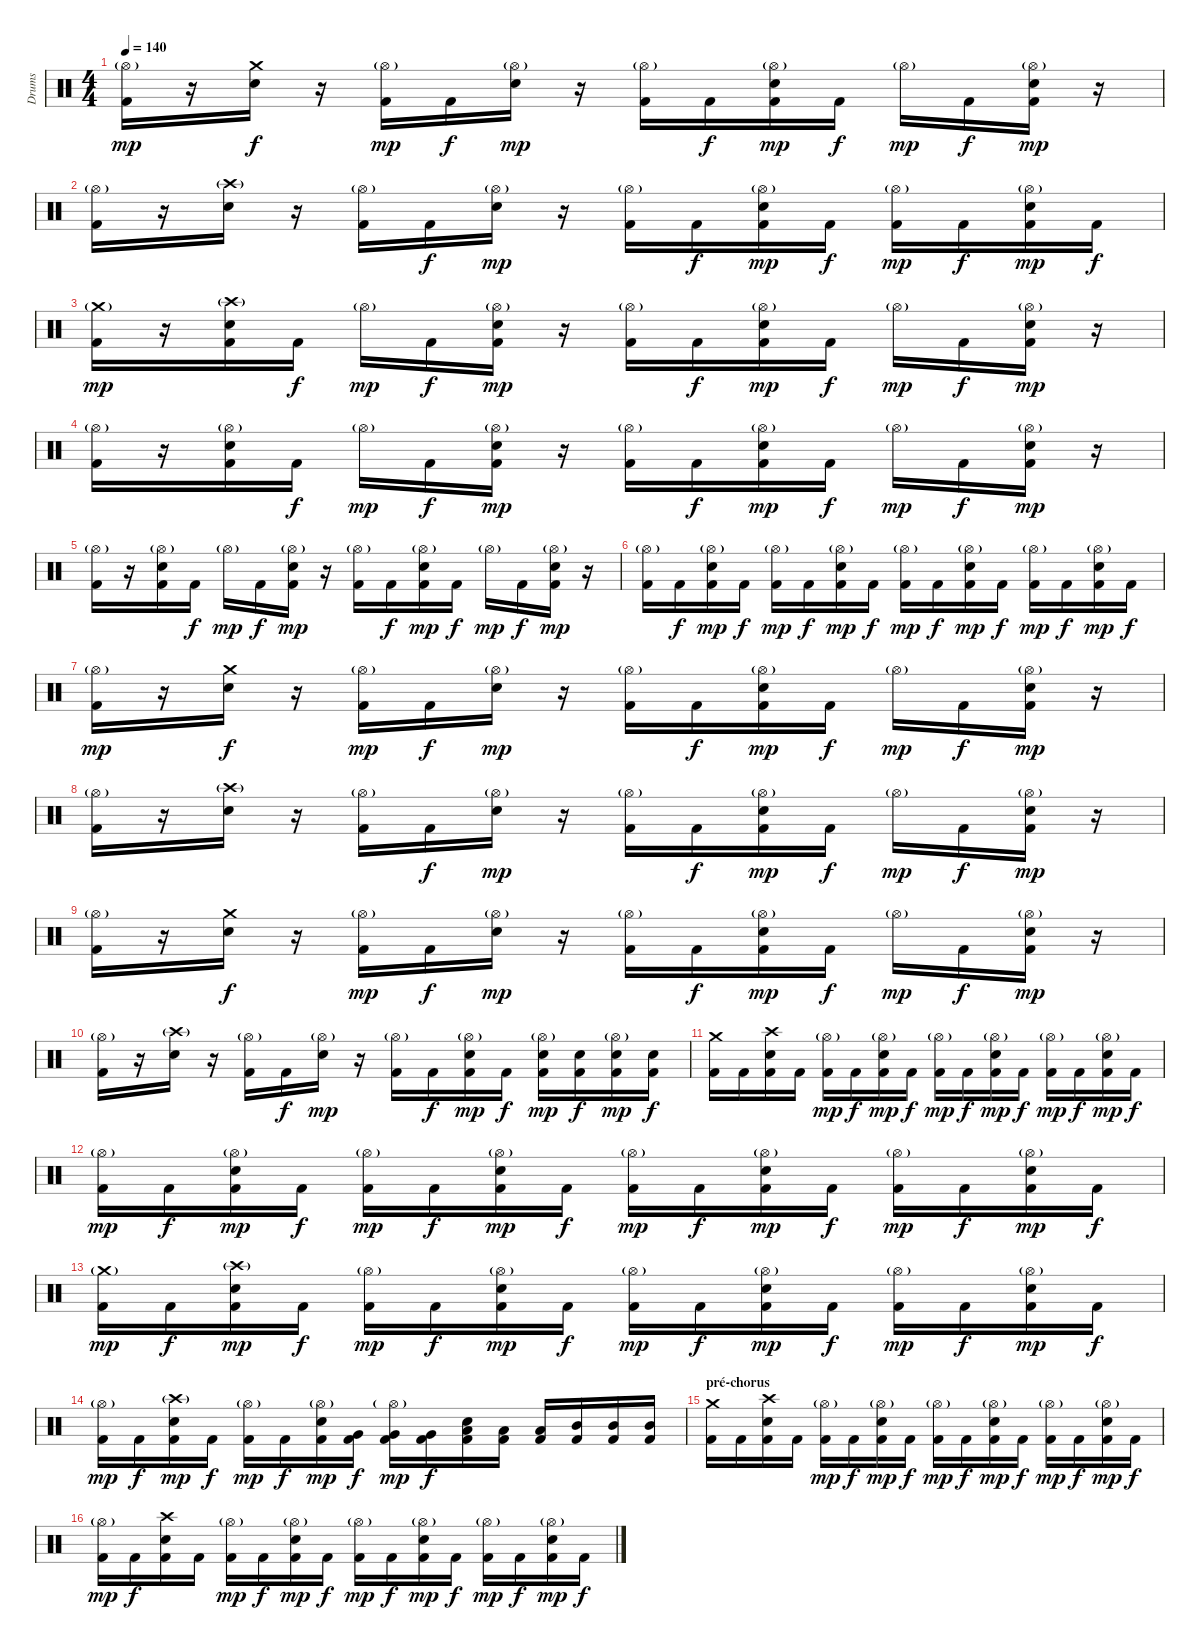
\track ("Drums" "Drums") {instrument percussion}
\staff {score}
\articulation defaults
\ts (4 4)
\tempo 140
\clef neutral
\ks c
("Hi-Hat (open)"{g} "Kick (hit) 2").16{dy mp} r.16 ("Crash medium (hit)" "Electric Snare (hit)").16{dy f} r.16 ("Hi-Hat (open)"{g} "Kick (hit) 2").16{dy mp} "Kick (hit) 2".16{dy f} ("Hi-Hat (open)"{g} "Electric Snare (hit)").16{dy mp} r.16 ("Hi-Hat (open)"{g} "Kick (hit) 2").16 "Kick (hit) 2".16{dy f} ("Hi-Hat (open)"{g} "Electric Snare (hit)" "Kick (hit) 2").16{dy mp} "Kick (hit) 2".16{dy f} "Hi-Hat (open)"{g}.16{dy mp} "Kick (hit) 2".16{dy f} ("Hi-Hat (open)"{g} "Electric Snare (hit)" "Kick (hit) 2").16{dy mp} r.16 |
("Hi-Hat (open)"{g} "Kick (hit) 2").16 r.16 ("Crash high (hit)"{g} "Electric Snare (hit)").16 r.16 ("Hi-Hat (open)"{g} "Kick (hit) 2").16 "Kick (hit) 2".16{dy f} ("Hi-Hat (open)"{g} "Electric Snare (hit)").16{dy mp} r.16 ("Hi-Hat (open)"{g} "Kick (hit) 2").16 "Kick (hit) 2".16{dy f} ("Hi-Hat (open)"{g} "Electric Snare (hit)" "Kick (hit) 2").16{dy mp} "Kick (hit) 2".16{dy f} ("Hi-Hat (open)"{g} "Kick (hit) 2").16{dy mp} "Kick (hit) 2".16{dy f} ("Hi-Hat (open)"{g} "Electric Snare (hit)" "Kick (hit) 2").16{dy mp} "Kick (hit) 2".16{dy f} |
("Crash medium (hit)"{g} "Kick (hit) 2").16{dy mp} r.16 ("Crash high (hit)"{g} "Electric Snare (hit)" "Kick (hit) 2").16 "Kick (hit) 2".16{dy f} "Hi-Hat (open)"{g}.16{dy mp} "Kick (hit) 2".16{dy f} ("Hi-Hat (open)"{g} "Electric Snare (hit)" "Kick (hit) 2").16{dy mp} r.16 ("Hi-Hat (open)"{g} "Kick (hit) 2").16 "Kick (hit) 2".16{dy f} ("Hi-Hat (open)"{g} "Electric Snare (hit)" "Kick (hit) 2").16{dy mp} "Kick (hit) 2".16{dy f} "Hi-Hat (open)"{g}.16{dy mp} "Kick (hit) 2".16{dy f} ("Hi-Hat (open)"{g} "Electric Snare (hit)" "Kick (hit) 2").16{dy mp} r.16 |
("Hi-Hat (open)"{g} "Kick (hit) 2").16 r.16 ("Hi-Hat (open)"{g} "Electric Snare (hit)" "Kick (hit) 2").16 "Kick (hit) 2".16{dy f} "Hi-Hat (open)"{g}.16{dy mp} "Kick (hit) 2".16{dy f} ("Hi-Hat (open)"{g} "Electric Snare (hit)" "Kick (hit) 2").16{dy mp} r.16 ("Hi-Hat (open)"{g} "Kick (hit) 2").16 "Kick (hit) 2".16{dy f} ("Hi-Hat (open)"{g} "Electric Snare (hit)" "Kick (hit) 2").16{dy mp} "Kick (hit) 2".16{dy f} "Hi-Hat (open)"{g}.16{dy mp} "Kick (hit) 2".16{dy f} ("Hi-Hat (open)"{g} "Electric Snare (hit)" "Kick (hit) 2").16{dy mp} r.16 |
("Hi-Hat (open)"{g} "Kick (hit) 2").16 r.16 ("Hi-Hat (open)"{g} "Electric Snare (hit)" "Kick (hit) 2").16 "Kick (hit) 2".16{dy f} "Hi-Hat (open)"{g}.16{dy mp} "Kick (hit) 2".16{dy f} ("Hi-Hat (open)"{g} "Electric Snare (hit)" "Kick (hit) 2").16{dy mp} r.16 ("Hi-Hat (open)"{g} "Kick (hit) 2").16 "Kick (hit) 2".16{dy f} ("Hi-Hat (open)"{g} "Electric Snare (hit)" "Kick (hit) 2").16{dy mp} "Kick (hit) 2".16{dy f} "Hi-Hat (open)"{g}.16{dy mp} "Kick (hit) 2".16{dy f} ("Hi-Hat (open)"{g} "Electric Snare (hit)" "Kick (hit) 2").16{dy mp} r.16 |
("Hi-Hat (open)"{g} "Kick (hit) 2").16 "Kick (hit) 2".16{dy f} ("Hi-Hat (open)"{g} "Electric Snare (hit)" "Kick (hit) 2").16{dy mp} "Kick (hit) 2".16{dy f} ("Hi-Hat (open)"{g} "Kick (hit) 2").16{dy mp} "Kick (hit) 2".16{dy f} ("Hi-Hat (open)"{g} "Electric Snare (hit)" "Kick (hit) 2").16{dy mp} "Kick (hit) 2".16{dy f} ("Hi-Hat (open)"{g} "Kick (hit) 2").16{dy mp} "Kick (hit) 2".16{dy f} ("Hi-Hat (open)"{g} "Electric Snare (hit)" "Kick (hit) 2").16{dy mp} "Kick (hit) 2".16{dy f} ("Hi-Hat (open)"{g} "Kick (hit) 2").16{dy mp} "Kick (hit) 2".16{dy f} ("Hi-Hat (open)"{g} "Electric Snare (hit)" "Kick (hit) 2").16{dy mp} "Kick (hit) 2".16{dy f} |
("Hi-Hat (open)"{g} "Kick (hit) 2").16{dy mp} r.16 ("Crash medium (hit)" "Electric Snare (hit)").16{dy f} r.16 ("Hi-Hat (open)"{g} "Kick (hit) 2").16{dy mp} "Kick (hit) 2".16{dy f} ("Hi-Hat (open)"{g} "Electric Snare (hit)").16{dy mp} r.16 ("Hi-Hat (open)"{g} "Kick (hit) 2").16 "Kick (hit) 2".16{dy f} ("Hi-Hat (open)"{g} "Electric Snare (hit)" "Kick (hit) 2").16{dy mp} "Kick (hit) 2".16{dy f} "Hi-Hat (open)"{g}.16{dy mp} "Kick (hit) 2".16{dy f} ("Hi-Hat (open)"{g} "Electric Snare (hit)" "Kick (hit) 2").16{dy mp} r.16 |
("Hi-Hat (open)"{g} "Kick (hit) 2").16 r.16 ("Crash high (hit)"{g} "Electric Snare (hit)").16 r.16 ("Hi-Hat (open)"{g} "Kick (hit) 2").16 "Kick (hit) 2".16{dy f} ("Hi-Hat (open)"{g} "Electric Snare (hit)").16{dy mp} r.16 ("Hi-Hat (open)"{g} "Kick (hit) 2").16 "Kick (hit) 2".16{dy f} ("Hi-Hat (open)"{g} "Electric Snare (hit)" "Kick (hit) 2").16{dy mp} "Kick (hit) 2".16{dy f} "Hi-Hat (open)"{g}.16{dy mp} "Kick (hit) 2".16{dy f} ("Hi-Hat (open)"{g} "Electric Snare (hit)" "Kick (hit) 2").16{dy mp} r.16 |
("Hi-Hat (open)"{g} "Kick (hit) 2").16 r.16 ("Crash medium (hit)" "Electric Snare (hit)").16{dy f} r.16 ("Hi-Hat (open)"{g} "Kick (hit) 2").16{dy mp} "Kick (hit) 2".16{dy f} ("Hi-Hat (open)"{g} "Electric Snare (hit)").16{dy mp} r.16 ("Hi-Hat (open)"{g} "Kick (hit) 2").16 "Kick (hit) 2".16{dy f} ("Hi-Hat (open)"{g} "Electric Snare (hit)" "Kick (hit) 2").16{dy mp} "Kick (hit) 2".16{dy f} "Hi-Hat (open)"{g}.16{dy mp} "Kick (hit) 2".16{dy f} ("Hi-Hat (open)"{g} "Electric Snare (hit)" "Kick (hit) 2").16{dy mp} r.16 |
("Hi-Hat (open)"{g} "Kick (hit) 2").16 r.16 ("Crash high (hit)"{g} "Electric Snare (hit)").16 r.16 ("Hi-Hat (open)"{g} "Kick (hit) 2").16 "Kick (hit) 2".16{dy f} ("Hi-Hat (open)"{g} "Electric Snare (hit)").16{dy mp} r.16 ("Hi-Hat (open)"{g} "Kick (hit) 2").16 "Kick (hit) 2".16{dy f} ("Hi-Hat (open)"{g} "Electric Snare (hit)" "Kick (hit) 2").16{dy mp} "Kick (hit) 2".16{dy f} ("Hi-Hat (open)"{g} "Electric Snare (hit)" "Kick (hit) 2").16{dy mp} ("Electric Snare (hit)" "Kick (hit) 2").16{dy f} ("Hi-Hat (open)"{g} "Electric Snare (hit)" "Kick (hit) 2").16{dy mp} ("Electric Snare (hit)" "Kick (hit) 2").16{dy f} |
("Crash medium (hit)" "Kick (hit) 2").16 "Kick (hit) 2".16 ("Crash high (hit)" "Electric Snare (hit)" "Kick (hit) 2").16 "Kick (hit) 2".16 ("Hi-Hat (open)"{g} "Kick (hit) 2").16{dy mp} "Kick (hit) 2".16{dy f} ("Hi-Hat (open)"{g} "Electric Snare (hit)" "Kick (hit) 2").16{dy mp} "Kick (hit) 2".16{dy f} ("Hi-Hat (open)"{g} "Kick (hit) 2").16{dy mp} "Kick (hit) 2".16{dy f} ("Hi-Hat (open)"{g} "Electric Snare (hit)" "Kick (hit) 2").16{dy mp} "Kick (hit) 2".16{dy f} ("Hi-Hat (open)"{g} "Kick (hit) 2").16{dy mp} "Kick (hit) 2".16{dy f} ("Hi-Hat (open)"{g} "Electric Snare (hit)" "Kick (hit) 2").16{dy mp} "Kick (hit) 2".16{dy f} |
("Hi-Hat (open)"{g} "Kick (hit) 2").16{dy mp} "Kick (hit) 2".16{dy f} ("Hi-Hat (open)"{g} "Electric Snare (hit)" "Kick (hit) 2").16{dy mp} "Kick (hit) 2".16{dy f} ("Hi-Hat (open)"{g} "Kick (hit) 2").16{dy mp} "Kick (hit) 2".16{dy f} ("Hi-Hat (open)"{g} "Electric Snare (hit)" "Kick (hit) 2").16{dy mp} "Kick (hit) 2".16{dy f} ("Hi-Hat (open)"{g} "Kick (hit) 2").16{dy mp} "Kick (hit) 2".16{dy f} ("Hi-Hat (open)"{g} "Electric Snare (hit)" "Kick (hit) 2").16{dy mp} "Kick (hit) 2".16{dy f} ("Hi-Hat (open)"{g} "Kick (hit) 2").16{dy mp} "Kick (hit) 2".16{dy f} ("Hi-Hat (open)"{g} "Electric Snare (hit)" "Kick (hit) 2").16{dy mp} "Kick (hit) 2".16{dy f} |
("Crash medium (hit)"{g} "Kick (hit) 2").16{dy mp} "Kick (hit) 2".16{dy f} ("Crash high (hit)"{g} "Electric Snare (hit)" "Kick (hit) 2").16{dy mp} "Kick (hit) 2".16{dy f} ("Hi-Hat (open)"{g} "Kick (hit) 2").16{dy mp} "Kick (hit) 2".16{dy f} ("Hi-Hat (open)"{g} "Electric Snare (hit)" "Kick (hit) 2").16{dy mp} "Kick (hit) 2".16{dy f} ("Hi-Hat (open)"{g} "Kick (hit) 2").16{dy mp} "Kick (hit) 2".16{dy f} ("Hi-Hat (open)"{g} "Electric Snare (hit)" "Kick (hit) 2").16{dy mp} "Kick (hit) 2".16{dy f} ("Hi-Hat (open)"{g} "Kick (hit) 2").16{dy mp} "Kick (hit) 2".16{dy f} ("Hi-Hat (open)"{g} "Electric Snare (hit)" "Kick (hit) 2").16{dy mp} "Kick (hit) 2".16{dy f} |
("Hi-Hat (open)"{g} "Kick (hit) 2").16{dy mp} "Kick (hit) 2".16{dy f} ("Crash high (hit)"{g} "Electric Snare (hit)" "Kick (hit) 2").16{dy mp} "Kick (hit) 2".16{dy f} ("Hi-Hat (open)"{g} "Kick (hit) 2").16{dy mp} "Kick (hit) 2".16{dy f} ("Hi-Hat (open)"{g} "Electric Snare (hit)" "Kick (hit) 2").16{dy mp} ("Kick (hit) 2" "Very Low Tom (hit)").16{dy f} ("Hi-Hat (open)"{g} "Kick (hit) 2" "Very Low Tom (hit)").16{dy mp} ("Kick (hit) 2" "Very Low Tom (hit)").16{dy f} ("Electric Snare (hit)" "Kick (hit) 2" "Low Tom (hit)").16 ("Kick (hit) 2" "Low Tom (hit)").16 ("Kick (hit) 2" "Low Tom (hit)").16 ("Kick (hit) 2" "Mid Tom (hit)").16 ("Kick (hit) 2" "Mid Tom (hit)").16 ("Kick (hit) 2" "Mid Tom (hit)").16 |
\section ("" "pré-chorus")
("Crash medium (hit)" "Kick (hit) 2").16 "Kick (hit) 2".16 ("Crash high (hit)" "Electric Snare (hit)" "Kick (hit) 2").16 "Kick (hit) 2".16 ("Hi-Hat (open)"{g} "Kick (hit) 2").16{dy mp} "Kick (hit) 2".16{dy f} ("Hi-Hat (open)"{g} "Electric Snare (hit)" "Kick (hit) 2").16{dy mp} "Kick (hit) 2".16{dy f} ("Hi-Hat (open)"{g} "Kick (hit) 2").16{dy mp} "Kick (hit) 2".16{dy f} ("Hi-Hat (open)"{g} "Electric Snare (hit)" "Kick (hit) 2").16{dy mp} "Kick (hit) 2".16{dy f} ("Hi-Hat (open)"{g} "Kick (hit) 2").16{dy mp} "Kick (hit) 2".16{dy f} ("Hi-Hat (open)"{g} "Electric Snare (hit)" "Kick (hit) 2").16{dy mp} "Kick (hit) 2".16{dy f} |
("Hi-Hat (open)"{g} "Kick (hit) 2").16{dy mp} "Kick (hit) 2".16{dy f} ("Crash high (hit)" "Electric Snare (hit)" "Kick (hit) 2").16 "Kick (hit) 2".16 ("Hi-Hat (open)"{g} "Kick (hit) 2").16{dy mp} "Kick (hit) 2".16{dy f} ("Hi-Hat (open)"{g} "Electric Snare (hit)" "Kick (hit) 2").16{dy mp} "Kick (hit) 2".16{dy f} ("Hi-Hat (open)"{g} "Kick (hit) 2").16{dy mp} "Kick (hit) 2".16{dy f} ("Hi-Hat (open)"{g} "Electric Snare (hit)" "Kick (hit) 2").16{dy mp} "Kick (hit) 2".16{dy f} ("Hi-Hat (open)"{g} "Kick (hit) 2").16{dy mp} "Kick (hit) 2".16{dy f} ("Hi-Hat (open)"{g} "Electric Snare (hit)" "Kick (hit) 2").16{dy mp} "Kick (hit) 2".16{dy f}
